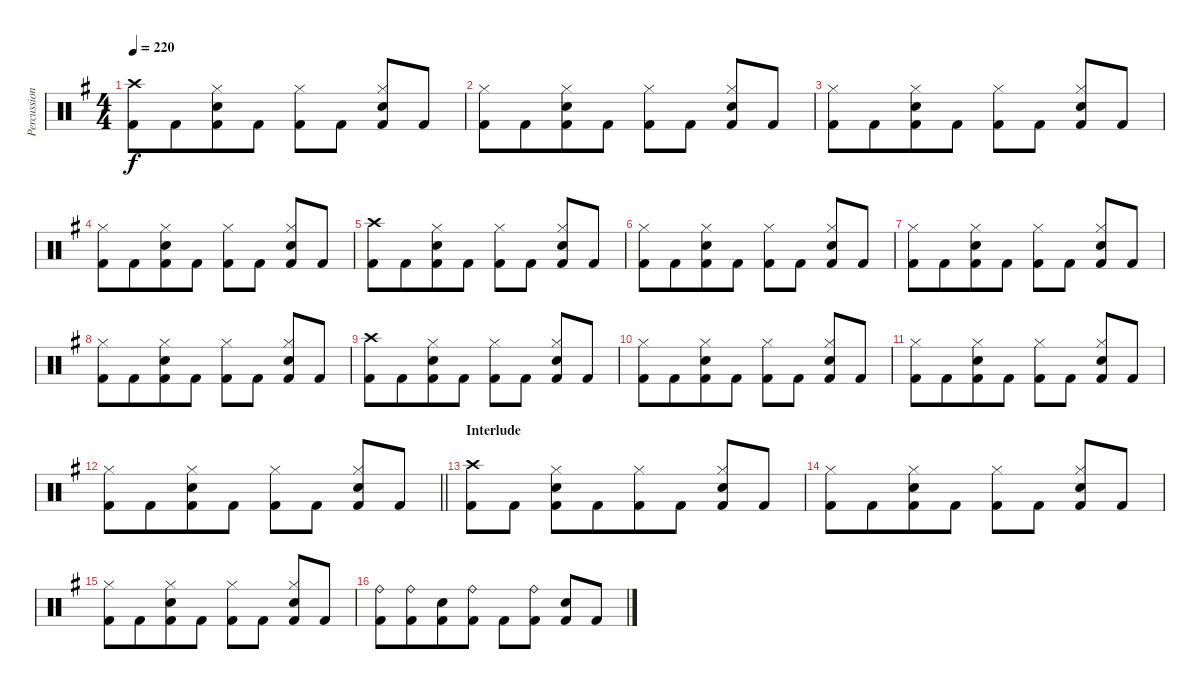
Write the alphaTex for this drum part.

\track ("Percussion" "Percussion") {instrument percussion}
\staff {score}
\articulation defaults
\ts (4 4)
\tempo 220
\clef neutral
\ks eminor
("Crash high (hit)" "Kick (hit) 2").8{dy f} "Kick (hit) 2".8{beam merge} ("Hi-Hat (closed)" "Snare (hit) 2" "Kick (hit) 2").8{beam merge} "Kick (hit) 2".8 ("Hi-Hat (closed)" "Kick (hit) 2").8{beam merge} "Kick (hit) 2".8 ("Hi-Hat (closed)" "Snare (hit) 2" "Kick (hit) 2").8 "Kick (hit) 2".8 |
("Hi-Hat (closed)" "Kick (hit) 2").8 "Kick (hit) 2".8{beam merge} ("Hi-Hat (closed)" "Snare (hit) 2" "Kick (hit) 2").8{beam merge} "Kick (hit) 2".8 ("Hi-Hat (closed)" "Kick (hit) 2").8{beam merge} "Kick (hit) 2".8 ("Hi-Hat (closed)" "Snare (hit) 2" "Kick (hit) 2").8 "Kick (hit) 2".8 |
("Hi-Hat (closed)" "Kick (hit) 2").8 "Kick (hit) 2".8{beam merge} ("Hi-Hat (closed)" "Snare (hit) 2" "Kick (hit) 2").8{beam merge} "Kick (hit) 2".8 ("Hi-Hat (closed)" "Kick (hit) 2").8{beam merge} "Kick (hit) 2".8 ("Hi-Hat (closed)" "Snare (hit) 2" "Kick (hit) 2").8 "Kick (hit) 2".8 |
("Hi-Hat (closed)" "Kick (hit) 2").8 "Kick (hit) 2".8{beam merge} ("Hi-Hat (closed)" "Snare (hit) 2" "Kick (hit) 2").8{beam merge} "Kick (hit) 2".8 ("Hi-Hat (closed)" "Kick (hit) 2").8{beam merge} "Kick (hit) 2".8 ("Hi-Hat (closed)" "Snare (hit) 2" "Kick (hit) 2").8 "Kick (hit) 2".8 |
("Crash high (hit)" "Kick (hit) 2").8 "Kick (hit) 2".8{beam merge} ("Hi-Hat (closed)" "Snare (hit) 2" "Kick (hit) 2").8{beam merge} "Kick (hit) 2".8 ("Hi-Hat (closed)" "Kick (hit) 2").8{beam merge} "Kick (hit) 2".8 ("Hi-Hat (closed)" "Snare (hit) 2" "Kick (hit) 2").8 "Kick (hit) 2".8 |
("Hi-Hat (closed)" "Kick (hit) 2").8 "Kick (hit) 2".8{beam merge} ("Hi-Hat (closed)" "Snare (hit) 2" "Kick (hit) 2").8{beam merge} "Kick (hit) 2".8 ("Hi-Hat (closed)" "Kick (hit) 2").8{beam merge} "Kick (hit) 2".8 ("Hi-Hat (closed)" "Snare (hit) 2" "Kick (hit) 2").8 "Kick (hit) 2".8 |
("Hi-Hat (closed)" "Kick (hit) 2").8 "Kick (hit) 2".8{beam merge} ("Hi-Hat (closed)" "Snare (hit) 2" "Kick (hit) 2").8{beam merge} "Kick (hit) 2".8 ("Hi-Hat (closed)" "Kick (hit) 2").8{beam merge} "Kick (hit) 2".8 ("Hi-Hat (closed)" "Snare (hit) 2" "Kick (hit) 2").8 "Kick (hit) 2".8 |
("Hi-Hat (closed)" "Kick (hit) 2").8 "Kick (hit) 2".8{beam merge} ("Hi-Hat (closed)" "Snare (hit) 2" "Kick (hit) 2").8{beam merge} "Kick (hit) 2".8 ("Hi-Hat (closed)" "Kick (hit) 2").8{beam merge} "Kick (hit) 2".8 ("Hi-Hat (closed)" "Snare (hit) 2" "Kick (hit) 2").8 "Kick (hit) 2".8 |
("Crash high (hit)" "Kick (hit) 2").8 "Kick (hit) 2".8{beam merge} ("Hi-Hat (closed)" "Snare (hit) 2" "Kick (hit) 2").8{beam merge} "Kick (hit) 2".8 ("Hi-Hat (closed)" "Kick (hit) 2").8{beam merge} "Kick (hit) 2".8 ("Hi-Hat (closed)" "Snare (hit) 2" "Kick (hit) 2").8 "Kick (hit) 2".8 |
("Hi-Hat (closed)" "Kick (hit) 2").8 "Kick (hit) 2".8{beam merge} ("Hi-Hat (closed)" "Snare (hit) 2" "Kick (hit) 2").8{beam merge} "Kick (hit) 2".8 ("Hi-Hat (closed)" "Kick (hit) 2").8{beam merge} "Kick (hit) 2".8 ("Hi-Hat (closed)" "Snare (hit) 2" "Kick (hit) 2").8 "Kick (hit) 2".8 |
("Hi-Hat (closed)" "Kick (hit) 2").8 "Kick (hit) 2".8{beam merge} ("Hi-Hat (closed)" "Snare (hit) 2" "Kick (hit) 2").8{beam merge} "Kick (hit) 2".8 ("Hi-Hat (closed)" "Kick (hit) 2").8{beam merge} "Kick (hit) 2".8 ("Hi-Hat (closed)" "Snare (hit) 2" "Kick (hit) 2").8 "Kick (hit) 2".8 |
\barLineRight lightlight
("Hi-Hat (closed)" "Kick (hit) 2").8 "Kick (hit) 2".8{beam merge} ("Hi-Hat (closed)" "Snare (hit) 2" "Kick (hit) 2").8{beam merge} "Kick (hit) 2".8 ("Hi-Hat (closed)" "Kick (hit) 2").8{beam merge} "Kick (hit) 2".8 ("Hi-Hat (closed)" "Snare (hit) 2" "Kick (hit) 2").8 "Kick (hit) 2".8 |
\section ("" "Interlude")
("Crash high (hit)" "Kick (hit) 2").8{beam merge} "Kick (hit) 2".8 ("Hi-Hat (closed)" "Snare (hit) 2" "Kick (hit) 2").8{beam merge} "Kick (hit) 2".8{beam merge} ("Hi-Hat (closed)" "Kick (hit) 2").8 "Kick (hit) 2".8 ("Hi-Hat (closed)" "Snare (hit) 2" "Kick (hit) 2").8{beam merge} "Kick (hit) 2".8 |
("Hi-Hat (closed)" "Kick (hit) 2").8 "Kick (hit) 2".8{beam merge} ("Hi-Hat (closed)" "Snare (hit) 2" "Kick (hit) 2").8{beam merge} "Kick (hit) 2".8 ("Hi-Hat (closed)" "Kick (hit) 2").8{beam merge} "Kick (hit) 2".8 ("Hi-Hat (closed)" "Snare (hit) 2" "Kick (hit) 2").8 "Kick (hit) 2".8 |
("Hi-Hat (closed)" "Kick (hit) 2").8 "Kick (hit) 2".8{beam merge} ("Hi-Hat (closed)" "Snare (hit) 2" "Kick (hit) 2").8{beam merge} "Kick (hit) 2".8 ("Hi-Hat (closed)" "Kick (hit) 2").8{beam merge} "Kick (hit) 2".8 ("Hi-Hat (closed)" "Snare (hit) 2" "Kick (hit) 2").8 "Kick (hit) 2".8 |
("Ride (bell)" "Kick (hit) 2").8 ("Ride (bell)" "Kick (hit) 2").8{beam merge} ("Snare (hit) 2" "Kick (hit) 2").8{beam merge} ("Ride (bell)" "Kick (hit) 2").8 "Kick (hit) 2".8{beam merge} ("Ride (bell)" "Kick (hit) 2").8 ("Snare (hit) 2" "Kick (hit) 2").8 "Kick (hit) 2".8
